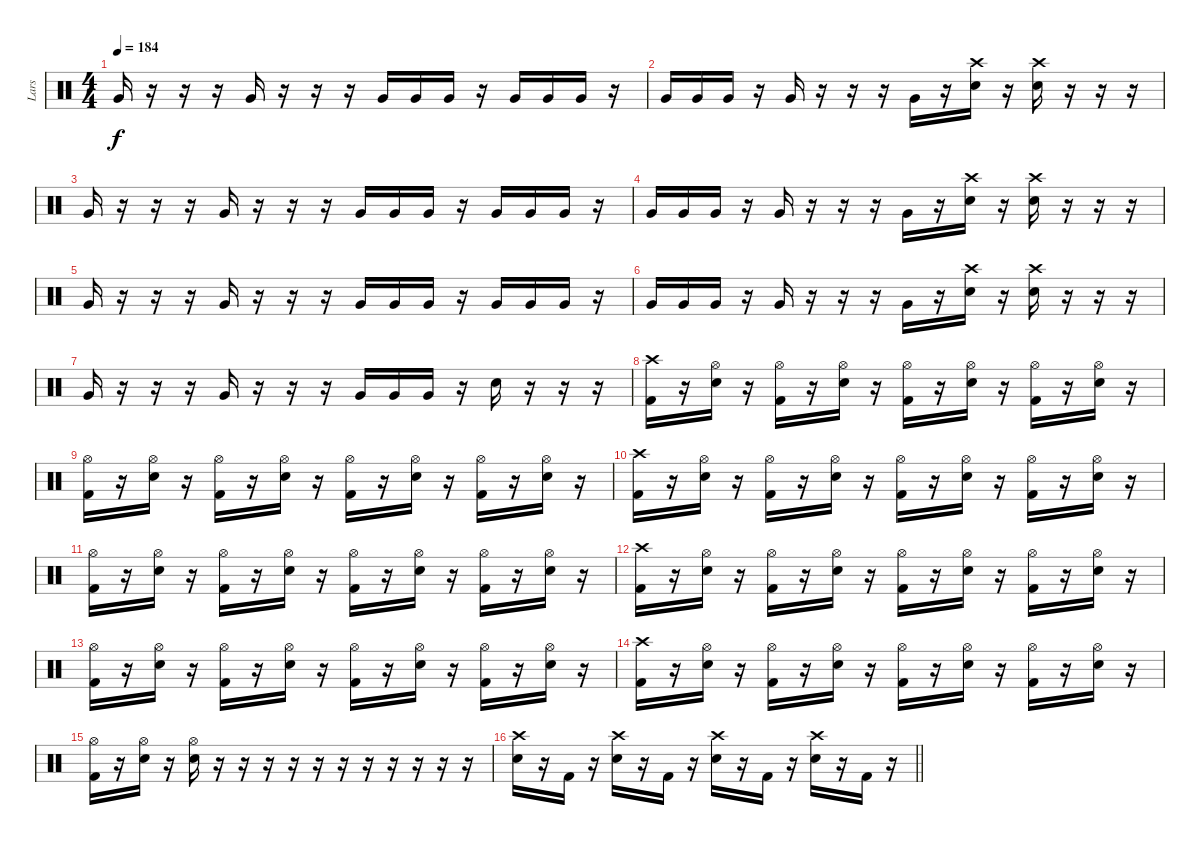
\track ("Lars" "Lars") {instrument percussion}
\staff {score}
\articulation defaults
\ts (4 4)
\tempo 184
\clef neutral
\ks c "Very Low Tom (hit)".16{dy f}
r.16 r.16 r.16 "Very Low Tom (hit)".16 r.16 r.16 r.16 "Very Low Tom (hit)".16 "Very Low Tom (hit)".16 "Very Low Tom (hit)".16 r.16 "Very Low Tom (hit)".16 "Very Low Tom (hit)".16 "Very Low Tom (hit)".16 r.16 |
"Very Low Tom (hit)".16 "Very Low Tom (hit)".16 "Very Low Tom (hit)".16 r.16 "Very Low Tom (hit)".16 r.16 r.16 r.16 "Very Low Tom (hit)".16 r.16 ("Crash high (hit)" "Electric Snare (hit)").16 r.16 ("Crash high (hit)" "Electric Snare (hit)").16 r.16 r.16 r.16 |
"Very Low Tom (hit)".16 r.16 r.16 r.16 "Very Low Tom (hit)".16 r.16 r.16 r.16 "Very Low Tom (hit)".16 "Very Low Tom (hit)".16 "Very Low Tom (hit)".16 r.16 "Very Low Tom (hit)".16 "Very Low Tom (hit)".16 "Very Low Tom (hit)".16 r.16 |
"Very Low Tom (hit)".16 "Very Low Tom (hit)".16 "Very Low Tom (hit)".16 r.16 "Very Low Tom (hit)".16 r.16 r.16 r.16 "Very Low Tom (hit)".16 r.16 ("Crash high (hit)" "Electric Snare (hit)").16 r.16 ("Crash high (hit)" "Electric Snare (hit)").16 r.16 r.16 r.16 |
"Very Low Tom (hit)".16 r.16 r.16 r.16 "Very Low Tom (hit)".16 r.16 r.16 r.16 "Very Low Tom (hit)".16 "Very Low Tom (hit)".16 "Very Low Tom (hit)".16 r.16 "Very Low Tom (hit)".16 "Very Low Tom (hit)".16 "Very Low Tom (hit)".16 r.16 |
"Very Low Tom (hit)".16 "Very Low Tom (hit)".16 "Very Low Tom (hit)".16 r.16 "Very Low Tom (hit)".16 r.16 r.16 r.16 "Very Low Tom (hit)".16 r.16 ("Crash high (hit)" "Electric Snare (hit)").16 r.16 ("Crash high (hit)" "Electric Snare (hit)").16 r.16 r.16 r.16 |
"Very Low Tom (hit)".16 r.16 r.16 r.16 "Very Low Tom (hit)".16 r.16 r.16 r.16 "Very Low Tom (hit)".16 "Very Low Tom (hit)".16 "Very Low Tom (hit)".16 r.16 "Electric Snare (hit)".16 r.16 r.16 r.16 |
("Crash high (hit)" "Kick (hit) 2").16 r.16 ("Electric Snare (hit)" "Hi-Hat (open)").16 r.16 ("Hi-Hat (open)" "Kick (hit) 2").16 r.16 ("Electric Snare (hit)" "Hi-Hat (open)").16 r.16 ("Hi-Hat (open)" "Kick (hit) 2").16 r.16 ("Electric Snare (hit)" "Hi-Hat (open)").16 r.16 ("Hi-Hat (open)" "Kick (hit) 2").16 r.16 ("Electric Snare (hit)" "Hi-Hat (open)").16 r.16 |
("Hi-Hat (open)" "Kick (hit) 2").16 r.16 ("Electric Snare (hit)" "Hi-Hat (open)").16 r.16 ("Hi-Hat (open)" "Kick (hit) 2").16 r.16 ("Electric Snare (hit)" "Hi-Hat (open)").16 r.16 ("Hi-Hat (open)" "Kick (hit) 2").16 r.16 ("Electric Snare (hit)" "Hi-Hat (open)").16 r.16 ("Hi-Hat (open)" "Kick (hit) 2").16 r.16 ("Electric Snare (hit)" "Hi-Hat (open)").16 r.16 |
("Crash high (hit)" "Kick (hit) 2").16 r.16 ("Electric Snare (hit)" "Hi-Hat (open)").16 r.16 ("Hi-Hat (open)" "Kick (hit) 2").16 r.16 ("Electric Snare (hit)" "Hi-Hat (open)").16 r.16 ("Hi-Hat (open)" "Kick (hit) 2").16 r.16 ("Electric Snare (hit)" "Hi-Hat (open)").16 r.16 ("Hi-Hat (open)" "Kick (hit) 2").16 r.16 ("Electric Snare (hit)" "Hi-Hat (open)").16 r.16 |
("Hi-Hat (open)" "Kick (hit) 2").16 r.16 ("Electric Snare (hit)" "Hi-Hat (open)").16 r.16 ("Hi-Hat (open)" "Kick (hit) 2").16 r.16 ("Electric Snare (hit)" "Hi-Hat (open)").16 r.16 ("Hi-Hat (open)" "Kick (hit) 2").16 r.16 ("Electric Snare (hit)" "Hi-Hat (open)").16 r.16 ("Hi-Hat (open)" "Kick (hit) 2").16 r.16 ("Electric Snare (hit)" "Hi-Hat (open)").16 r.16 |
("Crash high (hit)" "Kick (hit) 2").16 r.16 ("Electric Snare (hit)" "Hi-Hat (open)").16 r.16 ("Hi-Hat (open)" "Kick (hit) 2").16 r.16 ("Electric Snare (hit)" "Hi-Hat (open)").16 r.16 ("Hi-Hat (open)" "Kick (hit) 2").16 r.16 ("Electric Snare (hit)" "Hi-Hat (open)").16 r.16 ("Hi-Hat (open)" "Kick (hit) 2").16 r.16 ("Electric Snare (hit)" "Hi-Hat (open)").16 r.16 |
("Hi-Hat (open)" "Kick (hit) 2").16 r.16 ("Electric Snare (hit)" "Hi-Hat (open)").16 r.16 ("Hi-Hat (open)" "Kick (hit) 2").16 r.16 ("Electric Snare (hit)" "Hi-Hat (open)").16 r.16 ("Hi-Hat (open)" "Kick (hit) 2").16 r.16 ("Electric Snare (hit)" "Hi-Hat (open)").16 r.16 ("Hi-Hat (open)" "Kick (hit) 2").16 r.16 ("Electric Snare (hit)" "Hi-Hat (open)").16 r.16 |
("Crash high (hit)" "Kick (hit) 2").16 r.16 ("Electric Snare (hit)" "Hi-Hat (open)").16 r.16 ("Hi-Hat (open)" "Kick (hit) 2").16 r.16 ("Electric Snare (hit)" "Hi-Hat (open)").16 r.16 ("Hi-Hat (open)" "Kick (hit) 2").16 r.16 ("Electric Snare (hit)" "Hi-Hat (open)").16 r.16 ("Hi-Hat (open)" "Kick (hit) 2").16 r.16 ("Electric Snare (hit)" "Hi-Hat (open)").16 r.16 |
("Hi-Hat (open)" "Kick (hit) 2").16 r.16 ("Electric Snare (hit)" "Hi-Hat (open)").16 r.16 ("Electric Snare (hit)" "Hi-Hat (open)").16 r.16 r.16 r.16 r.16 r.16 r.16 r.16 r.16 r.16 r.16 r.16 |
\barLineRight lightlight
("Crash high (hit)" "Electric Snare (hit)").16 r.16 "Kick (hit) 2".16 r.16 ("Crash high (hit)" "Electric Snare (hit)").16 r.16 "Kick (hit) 2".16 r.16 ("Crash high (hit)" "Electric Snare (hit)").16 r.16 "Kick (hit) 2".16 r.16 ("Crash high (hit)" "Electric Snare (hit)").16 r.16 "Kick (hit) 2".16 r.16
